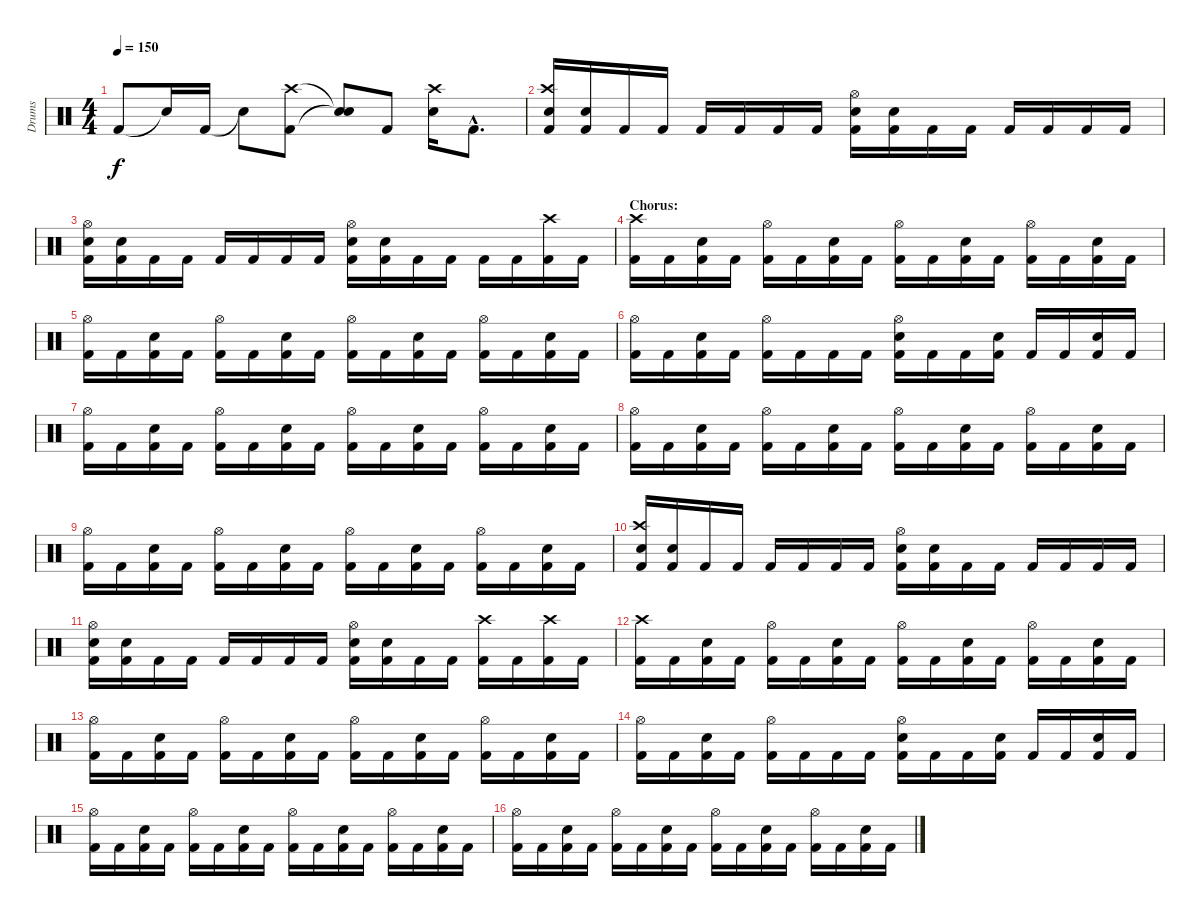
\track ("Drums" "Drums") {instrument percussion}
\staff {score}
\articulation defaults
\ts (4 4)
\tempo 150
\clef neutral
\ks c "Kick (hit) 2".8{dy f} "Snare (hit)"{t}.16 "Kick (hit) 2".16 "Snare (hit)"{t}.8
("Crash high (hit)" "Kick (hit) 2").8 ("Snare (hit)"{t} "Snare (hit)"{t}).8 "Kick (hit) 2".8 ("Crash high (hit)" "Electric Snare (hit)").16 "Kick (hit) 2"{hac}.8{d} |
("Crash high (hit)" "Electric Snare (hit)" "Kick (hit) 2").16 ("Electric Snare (hit)" "Kick (hit) 2").16 "Kick (hit) 2".16 "Kick (hit) 2".16 "Kick (hit) 2".16 "Kick (hit) 2".16 "Kick (hit) 2".16 "Kick (hit) 2".16 ("Hi-Hat (open)" "Electric Snare (hit)" "Kick (hit) 2").16 ("Electric Snare (hit)" "Kick (hit) 2").16 "Kick (hit) 2".16 "Kick (hit) 2".16 "Kick (hit) 2".16 "Kick (hit) 2".16 "Kick (hit) 2".16 "Kick (hit) 2".16 |
("Hi-Hat (open)" "Electric Snare (hit)" "Kick (hit) 2").16 ("Electric Snare (hit)" "Kick (hit) 2").16 "Kick (hit) 2".16 "Kick (hit) 2".16 "Kick (hit) 2".16 "Kick (hit) 2".16 "Kick (hit) 2".16 "Kick (hit) 2".16 ("Hi-Hat (open)" "Electric Snare (hit)" "Kick (hit) 2").16 ("Electric Snare (hit)" "Kick (hit) 2").16 "Kick (hit) 2".16 "Kick (hit) 2".16 "Kick (hit) 2".16 "Kick (hit) 2".16 ("Crash high (hit)" "Kick (hit) 2").16 "Kick (hit) 2".16 |
\section ("" "Chorus:")
("Crash high (hit)" "Kick (hit) 2").16 "Kick (hit) 2".16 ("Electric Snare (hit)" "Kick (hit) 2").16 "Kick (hit) 2".16 ("Hi-Hat (open)" "Kick (hit) 2").16 "Kick (hit) 2".16 ("Electric Snare (hit)" "Kick (hit) 2").16 "Kick (hit) 2".16 ("Hi-Hat (open)" "Kick (hit) 2").16 "Kick (hit) 2".16 ("Electric Snare (hit)" "Kick (hit) 2").16 "Kick (hit) 2".16 ("Hi-Hat (open)" "Kick (hit) 2").16 "Kick (hit) 2".16 ("Electric Snare (hit)" "Kick (hit) 2").16 "Kick (hit) 2".16 |
("Hi-Hat (open)" "Kick (hit) 2").16 "Kick (hit) 2".16 ("Electric Snare (hit)" "Kick (hit) 2").16 "Kick (hit) 2".16 ("Hi-Hat (open)" "Kick (hit) 2").16 "Kick (hit) 2".16 ("Electric Snare (hit)" "Kick (hit) 2").16 "Kick (hit) 2".16 ("Hi-Hat (open)" "Kick (hit) 2").16 "Kick (hit) 2".16 ("Electric Snare (hit)" "Kick (hit) 2").16 "Kick (hit) 2".16 ("Hi-Hat (open)" "Kick (hit) 2").16 "Kick (hit) 2".16 ("Electric Snare (hit)" "Kick (hit) 2").16 "Kick (hit) 2".16 |
("Hi-Hat (open)" "Kick (hit) 2").16 "Kick (hit) 2".16 ("Electric Snare (hit)" "Kick (hit) 2").16 "Kick (hit) 2".16 ("Hi-Hat (open)" "Kick (hit) 2").16 "Kick (hit) 2".16 "Kick (hit) 2".16 "Kick (hit) 2".16 ("Hi-Hat (open)" "Electric Snare (hit)" "Kick (hit) 2").16 "Kick (hit) 2".16 "Kick (hit) 2".16 ("Electric Snare (hit)" "Kick (hit) 2").16 "Kick (hit) 2".16 "Kick (hit) 2".16 ("Electric Snare (hit)" "Kick (hit) 2").16 "Kick (hit) 2".16 |
("Hi-Hat (open)" "Kick (hit) 2").16 "Kick (hit) 2".16 ("Electric Snare (hit)" "Kick (hit) 2").16 "Kick (hit) 2".16 ("Hi-Hat (open)" "Kick (hit) 2").16 "Kick (hit) 2".16 ("Electric Snare (hit)" "Kick (hit) 2").16 "Kick (hit) 2".16 ("Hi-Hat (open)" "Kick (hit) 2").16 "Kick (hit) 2".16 ("Electric Snare (hit)" "Kick (hit) 2").16 "Kick (hit) 2".16 ("Hi-Hat (open)" "Kick (hit) 2").16 "Kick (hit) 2".16 ("Electric Snare (hit)" "Kick (hit) 2").16 "Kick (hit) 2".16 |
("Hi-Hat (open)" "Kick (hit) 2").16 "Kick (hit) 2".16 ("Electric Snare (hit)" "Kick (hit) 2").16 "Kick (hit) 2".16 ("Hi-Hat (open)" "Kick (hit) 2").16 "Kick (hit) 2".16 ("Electric Snare (hit)" "Kick (hit) 2").16 "Kick (hit) 2".16 ("Hi-Hat (open)" "Kick (hit) 2").16 "Kick (hit) 2".16 ("Electric Snare (hit)" "Kick (hit) 2").16 "Kick (hit) 2".16 ("Hi-Hat (open)" "Kick (hit) 2").16 "Kick (hit) 2".16 ("Electric Snare (hit)" "Kick (hit) 2").16 "Kick (hit) 2".16 |
("Hi-Hat (open)" "Kick (hit) 2").16 "Kick (hit) 2".16 ("Electric Snare (hit)" "Kick (hit) 2").16 "Kick (hit) 2".16 ("Hi-Hat (open)" "Kick (hit) 2").16 "Kick (hit) 2".16 ("Electric Snare (hit)" "Kick (hit) 2").16 "Kick (hit) 2".16 ("Hi-Hat (open)" "Kick (hit) 2").16 "Kick (hit) 2".16 ("Electric Snare (hit)" "Kick (hit) 2").16 "Kick (hit) 2".16 ("Hi-Hat (open)" "Kick (hit) 2").16 "Kick (hit) 2".16 ("Electric Snare (hit)" "Kick (hit) 2").16 "Kick (hit) 2".16 |
("Crash high (hit)" "Electric Snare (hit)" "Kick (hit) 2").16 ("Electric Snare (hit)" "Kick (hit) 2").16 "Kick (hit) 2".16 "Kick (hit) 2".16 "Kick (hit) 2".16 "Kick (hit) 2".16 "Kick (hit) 2".16 "Kick (hit) 2".16 ("Hi-Hat (open)" "Electric Snare (hit)" "Kick (hit) 2").16 ("Electric Snare (hit)" "Kick (hit) 2").16 "Kick (hit) 2".16 "Kick (hit) 2".16 "Kick (hit) 2".16 "Kick (hit) 2".16 "Kick (hit) 2".16 "Kick (hit) 2".16 |
("Hi-Hat (open)" "Electric Snare (hit)" "Kick (hit) 2").16 ("Electric Snare (hit)" "Kick (hit) 2").16 "Kick (hit) 2".16 "Kick (hit) 2".16 "Kick (hit) 2".16 "Kick (hit) 2".16 "Kick (hit) 2".16 "Kick (hit) 2".16 ("Hi-Hat (open)" "Electric Snare (hit)" "Kick (hit) 2").16 ("Electric Snare (hit)" "Kick (hit) 2").16 "Kick (hit) 2".16 "Kick (hit) 2".16 ("Crash high (hit)" "Kick (hit) 2").16 "Kick (hit) 2".16 ("Crash high (hit)" "Kick (hit) 2").16 "Kick (hit) 2".16 |
("Crash high (hit)" "Kick (hit) 2").16 "Kick (hit) 2".16 ("Electric Snare (hit)" "Kick (hit) 2").16 "Kick (hit) 2".16 ("Hi-Hat (open)" "Kick (hit) 2").16 "Kick (hit) 2".16 ("Electric Snare (hit)" "Kick (hit) 2").16 "Kick (hit) 2".16 ("Hi-Hat (open)" "Kick (hit) 2").16 "Kick (hit) 2".16 ("Electric Snare (hit)" "Kick (hit) 2").16 "Kick (hit) 2".16 ("Hi-Hat (open)" "Kick (hit) 2").16 "Kick (hit) 2".16 ("Electric Snare (hit)" "Kick (hit) 2").16 "Kick (hit) 2".16 |
("Hi-Hat (open)" "Kick (hit) 2").16 "Kick (hit) 2".16 ("Electric Snare (hit)" "Kick (hit) 2").16 "Kick (hit) 2".16 ("Hi-Hat (open)" "Kick (hit) 2").16 "Kick (hit) 2".16 ("Electric Snare (hit)" "Kick (hit) 2").16 "Kick (hit) 2".16 ("Hi-Hat (open)" "Kick (hit) 2").16 "Kick (hit) 2".16 ("Electric Snare (hit)" "Kick (hit) 2").16 "Kick (hit) 2".16 ("Hi-Hat (open)" "Kick (hit) 2").16 "Kick (hit) 2".16 ("Electric Snare (hit)" "Kick (hit) 2").16 "Kick (hit) 2".16 |
("Hi-Hat (open)" "Kick (hit) 2").16 "Kick (hit) 2".16 ("Electric Snare (hit)" "Kick (hit) 2").16 "Kick (hit) 2".16 ("Hi-Hat (open)" "Kick (hit) 2").16 "Kick (hit) 2".16 "Kick (hit) 2".16 "Kick (hit) 2".16 ("Hi-Hat (open)" "Electric Snare (hit)" "Kick (hit) 2").16 "Kick (hit) 2".16 "Kick (hit) 2".16 ("Electric Snare (hit)" "Kick (hit) 2").16 "Kick (hit) 2".16 "Kick (hit) 2".16 ("Electric Snare (hit)" "Kick (hit) 2").16 "Kick (hit) 2".16 |
("Hi-Hat (open)" "Kick (hit) 2").16 "Kick (hit) 2".16 ("Electric Snare (hit)" "Kick (hit) 2").16 "Kick (hit) 2".16 ("Hi-Hat (open)" "Kick (hit) 2").16 "Kick (hit) 2".16 ("Electric Snare (hit)" "Kick (hit) 2").16 "Kick (hit) 2".16 ("Hi-Hat (open)" "Kick (hit) 2").16 "Kick (hit) 2".16 ("Electric Snare (hit)" "Kick (hit) 2").16 "Kick (hit) 2".16 ("Hi-Hat (open)" "Kick (hit) 2").16 "Kick (hit) 2".16 ("Electric Snare (hit)" "Kick (hit) 2").16 "Kick (hit) 2".16 |
("Hi-Hat (open)" "Kick (hit) 2").16 "Kick (hit) 2".16 ("Electric Snare (hit)" "Kick (hit) 2").16 "Kick (hit) 2".16 ("Hi-Hat (open)" "Kick (hit) 2").16 "Kick (hit) 2".16 ("Electric Snare (hit)" "Kick (hit) 2").16 "Kick (hit) 2".16 ("Hi-Hat (open)" "Kick (hit) 2").16 "Kick (hit) 2".16 ("Electric Snare (hit)" "Kick (hit) 2").16 "Kick (hit) 2".16 ("Hi-Hat (open)" "Kick (hit) 2").16 "Kick (hit) 2".16 ("Electric Snare (hit)" "Kick (hit) 2").16 "Kick (hit) 2".16
